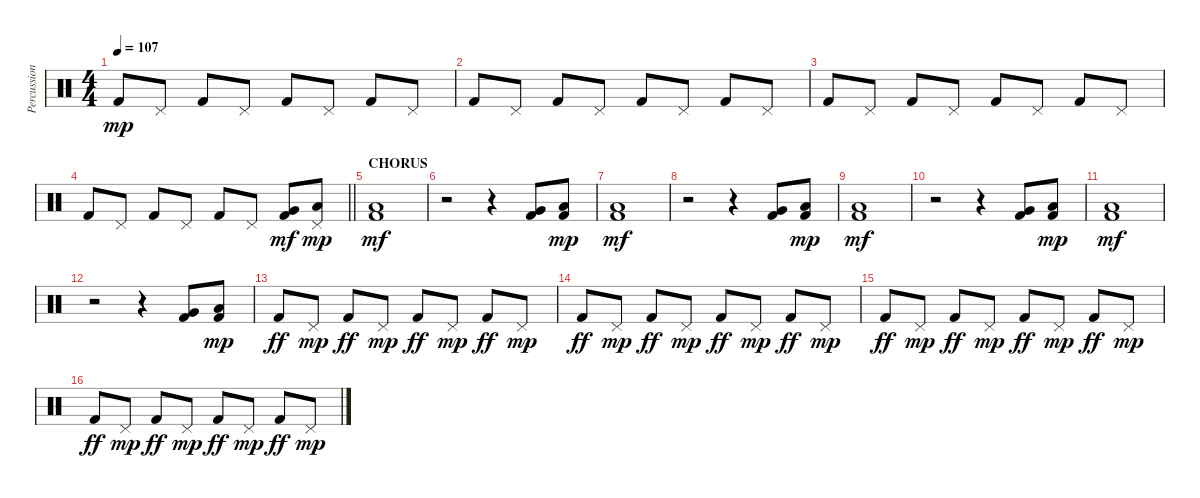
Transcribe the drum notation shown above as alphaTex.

\track ("Percussion" "Percussion") {instrument percussion}
\staff {score}
\articulation defaults
\ts (4 4)
\tempo 107
\clef neutral
\ks c "Kick (hit) 2".8{dy mp} "Pedal Hi-Hat (hit)".8 "Kick (hit) 2".8 "Pedal Hi-Hat (hit)".8 "Kick (hit) 2".8 "Pedal Hi-Hat (hit)".8 "Kick (hit) 2".8 "Pedal Hi-Hat (hit)".8
|
"Kick (hit) 2".8 "Pedal Hi-Hat (hit)".8 "Kick (hit) 2".8 "Pedal Hi-Hat (hit)".8 "Kick (hit) 2".8 "Pedal Hi-Hat (hit)".8 "Kick (hit) 2".8 "Pedal Hi-Hat (hit)".8 |
"Kick (hit) 2".8 "Pedal Hi-Hat (hit)".8 "Kick (hit) 2".8 "Pedal Hi-Hat (hit)".8 "Kick (hit) 2".8 "Pedal Hi-Hat (hit)".8 "Kick (hit) 2".8 "Pedal Hi-Hat (hit)".8 |
\barLineRight lightlight "Kick (hit) 2".8 "Pedal Hi-Hat (hit)".8 "Kick (hit) 2".8 "Pedal Hi-Hat (hit)".8 "Kick (hit) 2".8 "Pedal Hi-Hat (hit)".8
("Kick (hit) 2" "Very Low Tom (hit)").8{dy mf} ("Low Floor Tom (hit)" "Pedal Hi-Hat (hit)").8{dy mp} |
\section ("" "CHORUS")
("Kick (hit) 2" "Low Floor Tom (hit)").1{dy mf} |
r.2 r.4 ("Kick (hit) 2" "Very Low Tom (hit)").8 ("Kick (hit) 2" "Low Floor Tom (hit)").8{dy mp} |
("Kick (hit) 2" "Low Floor Tom (hit)").1{dy mf} |
r.2 r.4 ("Kick (hit) 2" "Very Low Tom (hit)").8 ("Kick (hit) 2" "Low Floor Tom (hit)").8{dy mp} |
("Kick (hit) 2" "Low Floor Tom (hit)").1{dy mf} |
r.2 r.4 ("Kick (hit) 2" "Very Low Tom (hit)").8 ("Kick (hit) 2" "Low Floor Tom (hit)").8{dy mp} |
("Kick (hit) 2" "Low Floor Tom (hit)").1{dy mf} |
r.2 r.4 ("Kick (hit) 2" "Very Low Tom (hit)").8 ("Kick (hit) 2" "Low Floor Tom (hit)").8{dy mp} |
"Kick (hit) 2".8{dy ff} "Pedal Hi-Hat (hit)".8{dy mp} "Kick (hit) 2".8{dy ff} "Pedal Hi-Hat (hit)".8{dy mp} "Kick (hit) 2".8{dy ff} "Pedal Hi-Hat (hit)".8{dy mp} "Kick (hit) 2".8{dy ff} "Pedal Hi-Hat (hit)".8{dy mp} |
"Kick (hit) 2".8{dy ff} "Pedal Hi-Hat (hit)".8{dy mp} "Kick (hit) 2".8{dy ff} "Pedal Hi-Hat (hit)".8{dy mp} "Kick (hit) 2".8{dy ff} "Pedal Hi-Hat (hit)".8{dy mp} "Kick (hit) 2".8{dy ff} "Pedal Hi-Hat (hit)".8{dy mp} |
"Kick (hit) 2".8{dy ff} "Pedal Hi-Hat (hit)".8{dy mp} "Kick (hit) 2".8{dy ff} "Pedal Hi-Hat (hit)".8{dy mp} "Kick (hit) 2".8{dy ff} "Pedal Hi-Hat (hit)".8{dy mp} "Kick (hit) 2".8{dy ff} "Pedal Hi-Hat (hit)".8{dy mp} |
"Kick (hit) 2".8{dy ff} "Pedal Hi-Hat (hit)".8{dy mp} "Kick (hit) 2".8{dy ff} "Pedal Hi-Hat (hit)".8{dy mp} "Kick (hit) 2".8{dy ff} "Pedal Hi-Hat (hit)".8{dy mp} "Kick (hit) 2".8{dy ff} "Pedal Hi-Hat (hit)".8{dy mp}
